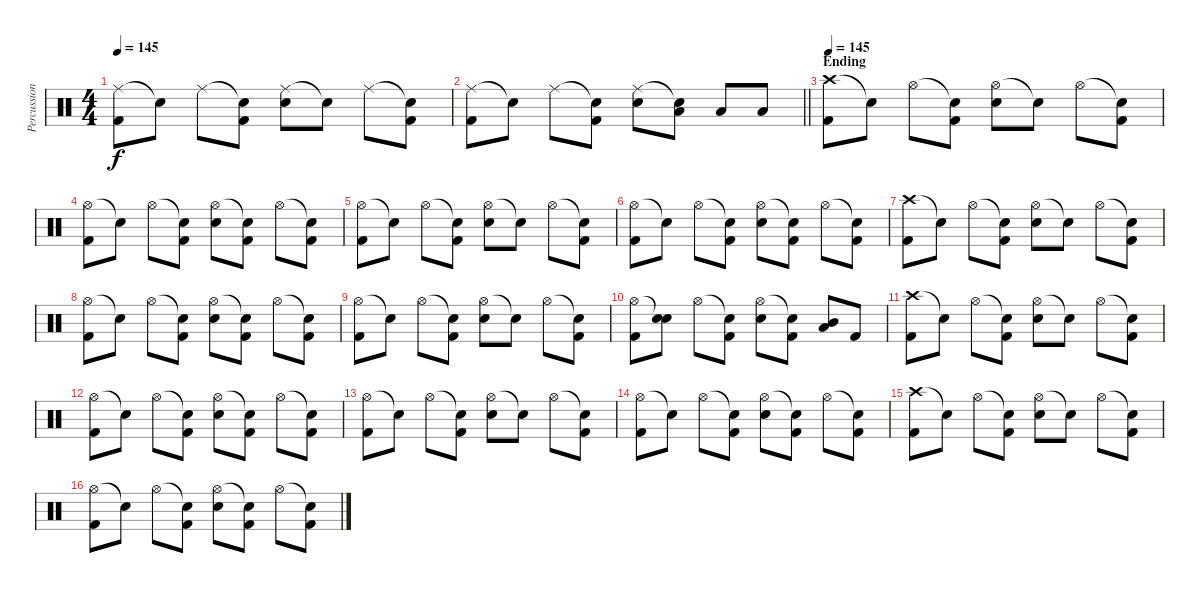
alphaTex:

\track ("Percussion" "Percussion") {instrument percussion}
\staff {score}
\articulation defaults
\ts (4 4)
\tempo 145
\clef neutral
\ks c
("Ride (middle)" "Kick (hit) 2").8{dy f} "Snare (hit)"{t}.8 "Ride (middle)".8 ("Snare (hit)"{t} "Kick (hit) 2").8 ("Ride (middle)" "Electric Snare (hit)").8 "Snare (hit)"{t}.8 "Ride (middle)".8 ("Snare (hit)"{t} "Kick (hit) 2").8 |
\barLineRight lightlight
("Ride (middle)" "Kick (hit) 2").8 "Snare (hit)"{t}.8 "Ride (middle)".8 ("Snare (hit)"{t} "Kick (hit) 2").8 ("Ride (middle)" "Electric Snare (hit)").8 ("Snare (hit)"{t} "Low Tom (hit)").8 "Low Tom (hit)".8 "Low Tom (hit)".8 |
\section ("" "Ending")
\tempo 145
("Crash high (hit)" "Kick (hit) 2").8 "Snare (hit)"{t}.8 "Hi-Hat (open)".8 ("Snare (hit)"{t} "Kick (hit) 2").8 ("Hi-Hat (open)" "Electric Snare (hit)").8 "Snare (hit)"{t}.8 "Hi-Hat (open)".8 ("Snare (hit)"{t} "Kick (hit) 2").8 |
("Hi-Hat (open)" "Kick (hit) 2").8 "Snare (hit)"{t}.8 "Hi-Hat (open)".8 ("Snare (hit)"{t} "Kick (hit) 2").8 ("Hi-Hat (open)" "Electric Snare (hit)").8 ("Snare (hit)"{t} "Kick (hit) 2").8 "Hi-Hat (open)".8 ("Snare (hit)"{t} "Kick (hit) 2").8 |
("Hi-Hat (open)" "Kick (hit) 2").8 "Snare (hit)"{t}.8 "Hi-Hat (open)".8 ("Snare (hit)"{t} "Kick (hit) 2").8 ("Hi-Hat (open)" "Electric Snare (hit)").8 "Snare (hit)"{t}.8 "Hi-Hat (open)".8 ("Snare (hit)"{t} "Kick (hit) 2").8 |
("Hi-Hat (open)" "Kick (hit) 2").8 "Snare (hit)"{t}.8 "Hi-Hat (open)".8 ("Snare (hit)"{t} "Kick (hit) 2").8 ("Hi-Hat (open)" "Electric Snare (hit)").8 ("Snare (hit)"{t} "Kick (hit) 2").8 "Hi-Hat (open)".8 ("Snare (hit)"{t} "Kick (hit) 2").8 |
("Crash high (hit)" "Kick (hit) 2").8 "Snare (hit)"{t}.8 "Hi-Hat (open)".8 ("Snare (hit)"{t} "Kick (hit) 2").8 ("Hi-Hat (open)" "Electric Snare (hit)").8 "Snare (hit)"{t}.8 "Hi-Hat (open)".8 ("Snare (hit)"{t} "Kick (hit) 2").8 |
("Hi-Hat (open)" "Kick (hit) 2").8 "Snare (hit)"{t}.8 "Hi-Hat (open)".8 ("Snare (hit)"{t} "Kick (hit) 2").8 ("Hi-Hat (open)" "Electric Snare (hit)").8 ("Snare (hit)"{t} "Kick (hit) 2").8 "Hi-Hat (open)".8 ("Snare (hit)"{t} "Kick (hit) 2").8 |
("Hi-Hat (open)" "Kick (hit) 2").8 "Snare (hit)"{t}.8 "Hi-Hat (open)".8 ("Snare (hit)"{t} "Kick (hit) 2").8 ("Hi-Hat (open)" "Electric Snare (hit)").8 "Snare (hit)"{t}.8 "Hi-Hat (open)".8 ("Snare (hit)"{t} "Kick (hit) 2").8 |
("Hi-Hat (open)" "Kick (hit) 2").8 ("Snare (hit)"{t} "Electric Snare (hit)").8 "Hi-Hat (open)".8 ("Snare (hit)"{t} "Kick (hit) 2").8 ("Hi-Hat (open)" "Electric Snare (hit)").8 ("Snare (hit)"{t} "Kick (hit) 2").8 ("Mid Tom (hit)" "Low Tom (hit)").8 "Kick (hit) 2".8 |
("Crash high (hit)" "Kick (hit) 2").8 "Snare (hit)"{t}.8 "Hi-Hat (open)".8 ("Snare (hit)"{t} "Kick (hit) 2").8 ("Hi-Hat (open)" "Electric Snare (hit)").8 "Snare (hit)"{t}.8 "Hi-Hat (open)".8 ("Snare (hit)"{t} "Kick (hit) 2").8 |
("Hi-Hat (open)" "Kick (hit) 2").8 "Snare (hit)"{t}.8 "Hi-Hat (open)".8 ("Snare (hit)"{t} "Kick (hit) 2").8 ("Hi-Hat (open)" "Electric Snare (hit)").8 ("Snare (hit)"{t} "Kick (hit) 2").8 "Hi-Hat (open)".8 ("Snare (hit)"{t} "Kick (hit) 2").8 |
("Hi-Hat (open)" "Kick (hit) 2").8 "Snare (hit)"{t}.8 "Hi-Hat (open)".8 ("Snare (hit)"{t} "Kick (hit) 2").8 ("Hi-Hat (open)" "Electric Snare (hit)").8 "Snare (hit)"{t}.8 "Hi-Hat (open)".8 ("Snare (hit)"{t} "Kick (hit) 2").8 |
("Hi-Hat (open)" "Kick (hit) 2").8 "Snare (hit)"{t}.8 "Hi-Hat (open)".8 ("Snare (hit)"{t} "Kick (hit) 2").8 ("Hi-Hat (open)" "Electric Snare (hit)").8 ("Snare (hit)"{t} "Kick (hit) 2").8 "Hi-Hat (open)".8 ("Snare (hit)"{t} "Kick (hit) 2").8 |
("Crash high (hit)" "Kick (hit) 2").8 "Snare (hit)"{t}.8 "Hi-Hat (open)".8 ("Snare (hit)"{t} "Kick (hit) 2").8 ("Hi-Hat (open)" "Electric Snare (hit)").8 "Snare (hit)"{t}.8 "Hi-Hat (open)".8 ("Snare (hit)"{t} "Kick (hit) 2").8 |
("Hi-Hat (open)" "Kick (hit) 2").8 "Snare (hit)"{t}.8 "Hi-Hat (open)".8 ("Snare (hit)"{t} "Kick (hit) 2").8 ("Hi-Hat (open)" "Electric Snare (hit)").8 ("Snare (hit)"{t} "Kick (hit) 2").8 "Hi-Hat (open)".8 ("Snare (hit)"{t} "Kick (hit) 2").8
